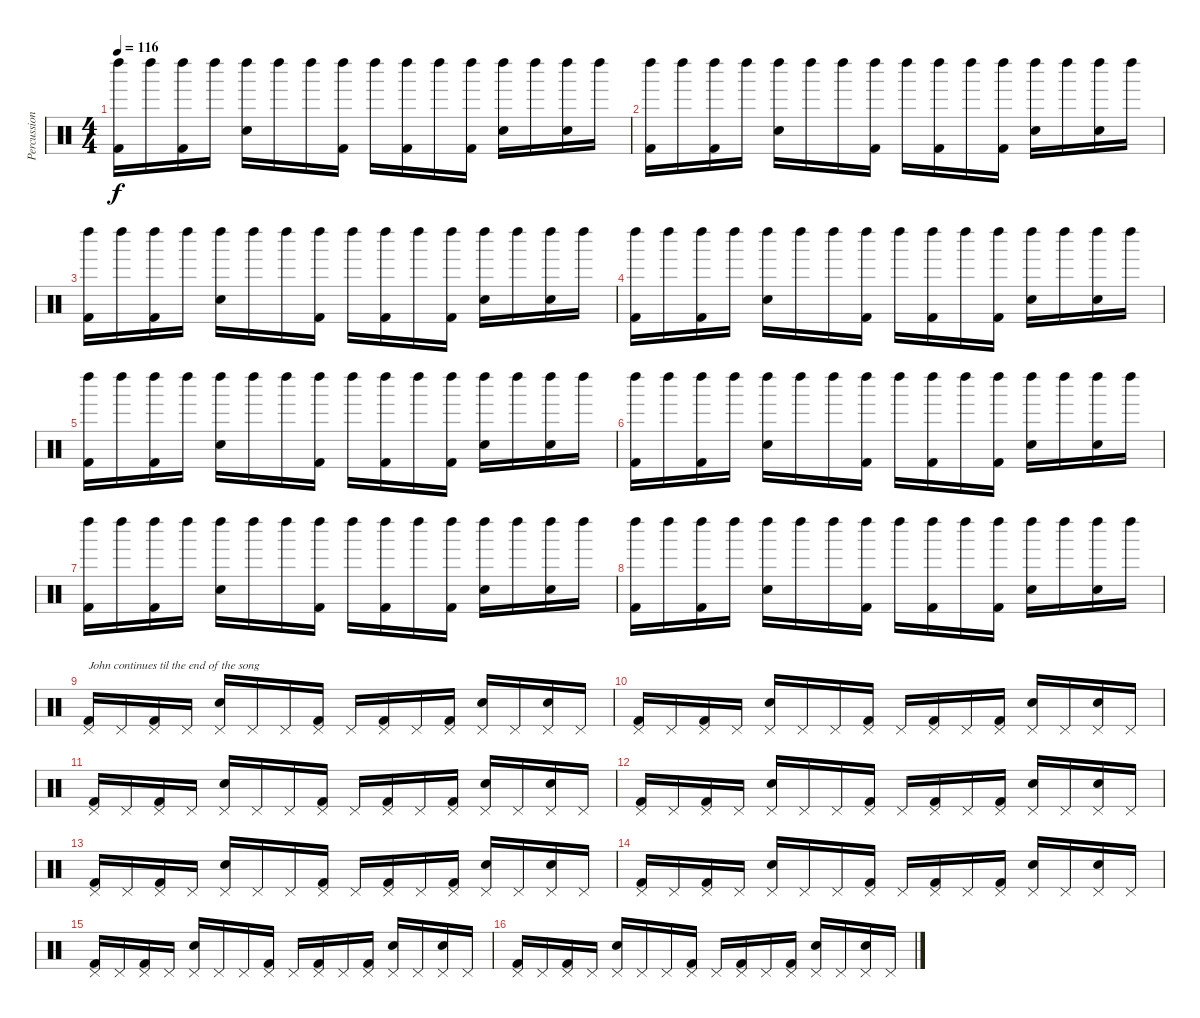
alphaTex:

\track ("Percussions" "Percussion") {instrument percussion}
\staff {score}
\articulation defaults
\ts (4 4)
\tempo 116
\clef neutral
\ks c
("Left Maraca (hit)" "Kick (hit) 2").16{dy f} "Left Maraca (hit)".16 ("Left Maraca (hit)" "Kick (hit) 2").16 "Left Maraca (hit)".16 ("Left Maraca (hit)" "Snare (hit) 2").16 "Left Maraca (hit)".16 "Left Maraca (hit)".16 ("Left Maraca (hit)" "Kick (hit) 2").16 "Left Maraca (hit)".16 ("Left Maraca (hit)" "Kick (hit) 2").16 "Left Maraca (hit)".16 ("Left Maraca (hit)" "Kick (hit) 2").16 ("Left Maraca (hit)" "Snare (hit) 2").16 "Left Maraca (hit)".16 ("Left Maraca (hit)" "Snare (hit) 2").16 "Left Maraca (hit)".16 |
("Left Maraca (hit)" "Kick (hit) 2").16 "Left Maraca (hit)".16 ("Left Maraca (hit)" "Kick (hit) 2").16 "Left Maraca (hit)".16 ("Left Maraca (hit)" "Snare (hit) 2").16 "Left Maraca (hit)".16 "Left Maraca (hit)".16 ("Left Maraca (hit)" "Kick (hit) 2").16 "Left Maraca (hit)".16 ("Left Maraca (hit)" "Kick (hit) 2").16 "Left Maraca (hit)".16 ("Left Maraca (hit)" "Kick (hit) 2").16 ("Left Maraca (hit)" "Snare (hit) 2").16 "Left Maraca (hit)".16 ("Left Maraca (hit)" "Snare (hit) 2").16 "Left Maraca (hit)".16 |
("Left Maraca (hit)" "Kick (hit) 2").16 "Left Maraca (hit)".16 ("Left Maraca (hit)" "Kick (hit) 2").16 "Left Maraca (hit)".16 ("Left Maraca (hit)" "Snare (hit) 2").16 "Left Maraca (hit)".16 "Left Maraca (hit)".16 ("Left Maraca (hit)" "Kick (hit) 2").16 "Left Maraca (hit)".16 ("Left Maraca (hit)" "Kick (hit) 2").16 "Left Maraca (hit)".16 ("Left Maraca (hit)" "Kick (hit) 2").16 ("Left Maraca (hit)" "Snare (hit) 2").16 "Left Maraca (hit)".16 ("Left Maraca (hit)" "Snare (hit) 2").16 "Left Maraca (hit)".16 |
("Left Maraca (hit)" "Kick (hit) 2").16 "Left Maraca (hit)".16 ("Left Maraca (hit)" "Kick (hit) 2").16 "Left Maraca (hit)".16 ("Left Maraca (hit)" "Snare (hit) 2").16 "Left Maraca (hit)".16 "Left Maraca (hit)".16 ("Left Maraca (hit)" "Kick (hit) 2").16 "Left Maraca (hit)".16 ("Left Maraca (hit)" "Kick (hit) 2").16 "Left Maraca (hit)".16 ("Left Maraca (hit)" "Kick (hit) 2").16 ("Left Maraca (hit)" "Snare (hit) 2").16 "Left Maraca (hit)".16 ("Left Maraca (hit)" "Snare (hit) 2").16 "Left Maraca (hit)".16 |
("Left Maraca (hit)" "Kick (hit) 2").16 "Left Maraca (hit)".16 ("Left Maraca (hit)" "Kick (hit) 2").16 "Left Maraca (hit)".16 ("Left Maraca (hit)" "Snare (hit) 2").16 "Left Maraca (hit)".16 "Left Maraca (hit)".16 ("Left Maraca (hit)" "Kick (hit) 2").16 "Left Maraca (hit)".16 ("Left Maraca (hit)" "Kick (hit) 2").16 "Left Maraca (hit)".16 ("Left Maraca (hit)" "Kick (hit) 2").16 ("Left Maraca (hit)" "Snare (hit) 2").16 "Left Maraca (hit)".16 ("Left Maraca (hit)" "Snare (hit) 2").16 "Left Maraca (hit)".16 |
("Left Maraca (hit)" "Kick (hit) 2").16 "Left Maraca (hit)".16 ("Left Maraca (hit)" "Kick (hit) 2").16 "Left Maraca (hit)".16 ("Left Maraca (hit)" "Snare (hit) 2").16 "Left Maraca (hit)".16 "Left Maraca (hit)".16 ("Left Maraca (hit)" "Kick (hit) 2").16 "Left Maraca (hit)".16 ("Left Maraca (hit)" "Kick (hit) 2").16 "Left Maraca (hit)".16 ("Left Maraca (hit)" "Kick (hit) 2").16 ("Left Maraca (hit)" "Snare (hit) 2").16 "Left Maraca (hit)".16 ("Left Maraca (hit)" "Snare (hit) 2").16 "Left Maraca (hit)".16 |
("Left Maraca (hit)" "Kick (hit) 2").16 "Left Maraca (hit)".16 ("Left Maraca (hit)" "Kick (hit) 2").16 "Left Maraca (hit)".16 ("Left Maraca (hit)" "Snare (hit) 2").16 "Left Maraca (hit)".16 "Left Maraca (hit)".16 ("Left Maraca (hit)" "Kick (hit) 2").16 "Left Maraca (hit)".16 ("Left Maraca (hit)" "Kick (hit) 2").16 "Left Maraca (hit)".16 ("Left Maraca (hit)" "Kick (hit) 2").16 ("Left Maraca (hit)" "Snare (hit) 2").16 "Left Maraca (hit)".16 ("Left Maraca (hit)" "Snare (hit) 2").16 "Left Maraca (hit)".16 |
("Left Maraca (hit)" "Kick (hit) 2").16 "Left Maraca (hit)".16 ("Left Maraca (hit)" "Kick (hit) 2").16 "Left Maraca (hit)".16 ("Left Maraca (hit)" "Snare (hit) 2").16 "Left Maraca (hit)".16 "Left Maraca (hit)".16 ("Left Maraca (hit)" "Kick (hit) 2").16 "Left Maraca (hit)".16 ("Left Maraca (hit)" "Kick (hit) 2").16 "Left Maraca (hit)".16 ("Left Maraca (hit)" "Kick (hit) 2").16 ("Left Maraca (hit)" "Snare (hit) 2").16 "Left Maraca (hit)".16 ("Left Maraca (hit)" "Snare (hit) 2").16 "Left Maraca (hit)".16 |
("Pedal Hi-Hat (hit)" "Kick (hit) 2").16{txt "John continues til the end of the song"} "Pedal Hi-Hat (hit)".16 ("Pedal Hi-Hat (hit)" "Kick (hit) 2").16 "Pedal Hi-Hat (hit)".16 ("Pedal Hi-Hat (hit)" "Snare (hit) 2").16 "Pedal Hi-Hat (hit)".16 "Pedal Hi-Hat (hit)".16 ("Pedal Hi-Hat (hit)" "Kick (hit) 2").16 "Pedal Hi-Hat (hit)".16 ("Pedal Hi-Hat (hit)" "Kick (hit) 2").16 "Pedal Hi-Hat (hit)".16 ("Pedal Hi-Hat (hit)" "Kick (hit) 2").16 ("Pedal Hi-Hat (hit)" "Snare (hit) 2").16 "Pedal Hi-Hat (hit)".16 ("Pedal Hi-Hat (hit)" "Snare (hit) 2").16 "Pedal Hi-Hat (hit)".16 |
("Pedal Hi-Hat (hit)" "Kick (hit) 2").16 "Pedal Hi-Hat (hit)".16 ("Pedal Hi-Hat (hit)" "Kick (hit) 2").16 "Pedal Hi-Hat (hit)".16 ("Pedal Hi-Hat (hit)" "Snare (hit) 2").16 "Pedal Hi-Hat (hit)".16 "Pedal Hi-Hat (hit)".16 ("Pedal Hi-Hat (hit)" "Kick (hit) 2").16 "Pedal Hi-Hat (hit)".16 ("Pedal Hi-Hat (hit)" "Kick (hit) 2").16 "Pedal Hi-Hat (hit)".16 ("Pedal Hi-Hat (hit)" "Kick (hit) 2").16 ("Pedal Hi-Hat (hit)" "Snare (hit) 2").16 "Pedal Hi-Hat (hit)".16 ("Pedal Hi-Hat (hit)" "Snare (hit) 2").16 "Pedal Hi-Hat (hit)".16 |
("Pedal Hi-Hat (hit)" "Kick (hit) 2").16 "Pedal Hi-Hat (hit)".16 ("Pedal Hi-Hat (hit)" "Kick (hit) 2").16 "Pedal Hi-Hat (hit)".16 ("Pedal Hi-Hat (hit)" "Snare (hit) 2").16 "Pedal Hi-Hat (hit)".16 "Pedal Hi-Hat (hit)".16 ("Pedal Hi-Hat (hit)" "Kick (hit) 2").16 "Pedal Hi-Hat (hit)".16 ("Pedal Hi-Hat (hit)" "Kick (hit) 2").16 "Pedal Hi-Hat (hit)".16 ("Pedal Hi-Hat (hit)" "Kick (hit) 2").16 ("Pedal Hi-Hat (hit)" "Snare (hit) 2").16 "Pedal Hi-Hat (hit)".16 ("Pedal Hi-Hat (hit)" "Snare (hit) 2").16 "Pedal Hi-Hat (hit)".16 |
("Pedal Hi-Hat (hit)" "Kick (hit) 2").16 "Pedal Hi-Hat (hit)".16 ("Pedal Hi-Hat (hit)" "Kick (hit) 2").16 "Pedal Hi-Hat (hit)".16 ("Pedal Hi-Hat (hit)" "Snare (hit) 2").16 "Pedal Hi-Hat (hit)".16 "Pedal Hi-Hat (hit)".16 ("Pedal Hi-Hat (hit)" "Kick (hit) 2").16 "Pedal Hi-Hat (hit)".16 ("Pedal Hi-Hat (hit)" "Kick (hit) 2").16 "Pedal Hi-Hat (hit)".16 ("Pedal Hi-Hat (hit)" "Kick (hit) 2").16 ("Pedal Hi-Hat (hit)" "Snare (hit) 2").16 "Pedal Hi-Hat (hit)".16 ("Pedal Hi-Hat (hit)" "Snare (hit) 2").16 "Pedal Hi-Hat (hit)".16 |
("Pedal Hi-Hat (hit)" "Kick (hit) 2").16 "Pedal Hi-Hat (hit)".16 ("Pedal Hi-Hat (hit)" "Kick (hit) 2").16 "Pedal Hi-Hat (hit)".16 ("Pedal Hi-Hat (hit)" "Snare (hit) 2").16 "Pedal Hi-Hat (hit)".16 "Pedal Hi-Hat (hit)".16 ("Pedal Hi-Hat (hit)" "Kick (hit) 2").16 "Pedal Hi-Hat (hit)".16 ("Pedal Hi-Hat (hit)" "Kick (hit) 2").16 "Pedal Hi-Hat (hit)".16 ("Pedal Hi-Hat (hit)" "Kick (hit) 2").16 ("Pedal Hi-Hat (hit)" "Snare (hit) 2").16 "Pedal Hi-Hat (hit)".16 ("Pedal Hi-Hat (hit)" "Snare (hit) 2").16 "Pedal Hi-Hat (hit)".16 |
("Pedal Hi-Hat (hit)" "Kick (hit) 2").16 "Pedal Hi-Hat (hit)".16 ("Pedal Hi-Hat (hit)" "Kick (hit) 2").16 "Pedal Hi-Hat (hit)".16 ("Pedal Hi-Hat (hit)" "Snare (hit) 2").16 "Pedal Hi-Hat (hit)".16 "Pedal Hi-Hat (hit)".16 ("Pedal Hi-Hat (hit)" "Kick (hit) 2").16 "Pedal Hi-Hat (hit)".16 ("Pedal Hi-Hat (hit)" "Kick (hit) 2").16 "Pedal Hi-Hat (hit)".16 ("Pedal Hi-Hat (hit)" "Kick (hit) 2").16 ("Pedal Hi-Hat (hit)" "Snare (hit) 2").16 "Pedal Hi-Hat (hit)".16 ("Pedal Hi-Hat (hit)" "Snare (hit) 2").16 "Pedal Hi-Hat (hit)".16 |
("Pedal Hi-Hat (hit)" "Kick (hit) 2").16 "Pedal Hi-Hat (hit)".16 ("Pedal Hi-Hat (hit)" "Kick (hit) 2").16 "Pedal Hi-Hat (hit)".16 ("Pedal Hi-Hat (hit)" "Snare (hit) 2").16 "Pedal Hi-Hat (hit)".16 "Pedal Hi-Hat (hit)".16 ("Pedal Hi-Hat (hit)" "Kick (hit) 2").16 "Pedal Hi-Hat (hit)".16 ("Pedal Hi-Hat (hit)" "Kick (hit) 2").16 "Pedal Hi-Hat (hit)".16 ("Pedal Hi-Hat (hit)" "Kick (hit) 2").16 ("Pedal Hi-Hat (hit)" "Snare (hit) 2").16 "Pedal Hi-Hat (hit)".16 ("Pedal Hi-Hat (hit)" "Snare (hit) 2").16 "Pedal Hi-Hat (hit)".16 |
("Pedal Hi-Hat (hit)" "Kick (hit) 2").16 "Pedal Hi-Hat (hit)".16 ("Pedal Hi-Hat (hit)" "Kick (hit) 2").16 "Pedal Hi-Hat (hit)".16 ("Pedal Hi-Hat (hit)" "Snare (hit) 2").16 "Pedal Hi-Hat (hit)".16 "Pedal Hi-Hat (hit)".16 ("Pedal Hi-Hat (hit)" "Kick (hit) 2").16 "Pedal Hi-Hat (hit)".16 ("Pedal Hi-Hat (hit)" "Kick (hit) 2").16 "Pedal Hi-Hat (hit)".16 ("Pedal Hi-Hat (hit)" "Kick (hit) 2").16 ("Pedal Hi-Hat (hit)" "Snare (hit) 2").16 "Pedal Hi-Hat (hit)".16 ("Pedal Hi-Hat (hit)" "Snare (hit) 2").16 "Pedal Hi-Hat (hit)".16
